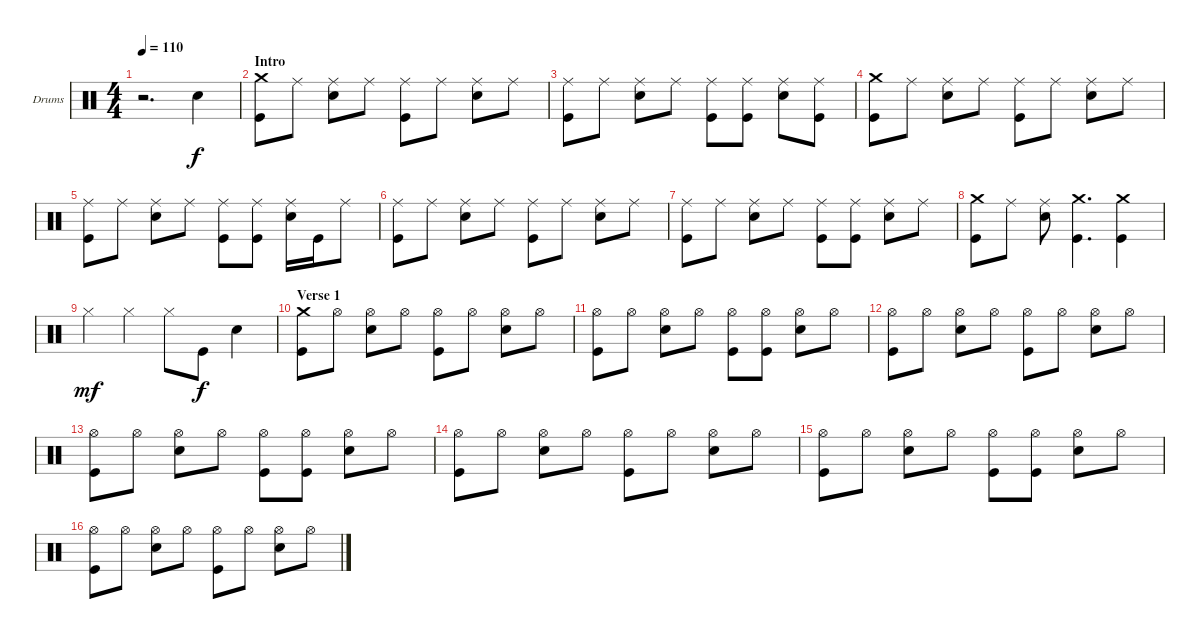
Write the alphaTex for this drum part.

\bracketExtendMode groupsimilarinstruments
\firstSystemTrackNameOrientation horizontal
\otherSystemsTrackNameOrientation horizontal
\track ("Drums" "Drums") {instrument percussion}
\staff {score}
\articulation defaults
\ts (4 4)
\tempo 110
\clef neutral
\ks c
r.2{d dy f} "Snare (hit) 2".4 |
\section ("" "Intro")
("Crash medium (hit)" "Kick (hit)").8 "Ride (middle)".8 ("Ride (middle)" "Snare (hit) 2").8 "Ride (middle)".8 ("Ride (middle)" "Kick (hit)").8 "Ride (middle)".8 ("Ride (middle)" "Snare (hit) 2").8 "Ride (middle)".8 |
("Ride (middle)" "Kick (hit)").8 "Ride (middle)".8 ("Ride (middle)" "Snare (hit) 2").8 "Ride (middle)".8 ("Ride (middle)" "Kick (hit)").8 ("Ride (middle)" "Kick (hit)").8 ("Ride (middle)" "Snare (hit) 2").8 ("Ride (middle)" "Kick (hit)").8 |
("Crash medium (hit)" "Kick (hit)").8 "Ride (middle)".8 ("Ride (middle)" "Snare (hit) 2").8 "Ride (middle)".8 ("Ride (middle)" "Kick (hit)").8 "Ride (middle)".8 ("Ride (middle)" "Snare (hit) 2").8 "Ride (middle)".8 |
("Ride (middle)" "Kick (hit)").8 "Ride (middle)".8 ("Ride (middle)" "Snare (hit) 2").8 "Ride (middle)".8 ("Ride (middle)" "Kick (hit)").8 ("Ride (middle)" "Kick (hit)").8 ("Ride (middle)" "Snare (hit) 2").16 "Kick (hit)".16 "Ride (middle)".8 |
("Ride (middle)" "Kick (hit)").8 "Ride (middle)".8 ("Ride (middle)" "Snare (hit) 2").8 "Ride (middle)".8 ("Ride (middle)" "Kick (hit)").8 "Ride (middle)".8 ("Ride (middle)" "Snare (hit) 2").8 "Ride (middle)".8 |
("Ride (middle)" "Kick (hit)").8 "Ride (middle)".8 ("Ride (middle)" "Snare (hit) 2").8 "Ride (middle)".8 ("Ride (middle)" "Kick (hit)").8 ("Ride (middle)" "Kick (hit)").8 ("Ride (middle)" "Snare (hit) 2").8 "Ride (middle)".8 |
("Crash medium (hit)" "Kick (hit)").8 "Ride (middle)".8 ("Ride (middle)" "Snare (hit) 2").8 ("Crash medium (hit)" "Kick (hit)").4{d} ("Crash medium (hit)" "Kick (hit)").4 |
"Hi-Hat (closed)".4{dy mf} "Hi-Hat (closed)".4 "Hi-Hat (closed)".8 "Kick (hit)".8{dy f} "Snare (hit) 2".4 |
\section ("" "Verse 1")
("Crash medium (hit)" "Kick (hit)").8 "Hi-Hat (open)".8 ("Hi-Hat (open)" "Snare (hit) 2").8 "Hi-Hat (open)".8 ("Hi-Hat (open)" "Kick (hit)").8 "Hi-Hat (open)".8 ("Hi-Hat (open)" "Snare (hit) 2").8 "Hi-Hat (open)".8 |
("Hi-Hat (open)" "Kick (hit)").8 "Hi-Hat (open)".8 ("Hi-Hat (open)" "Snare (hit) 2").8 "Hi-Hat (open)".8 ("Hi-Hat (open)" "Kick (hit)").8 ("Hi-Hat (open)" "Kick (hit)").8 ("Hi-Hat (open)" "Snare (hit) 2").8 "Hi-Hat (open)".8 |
("Hi-Hat (open)" "Kick (hit)").8 "Hi-Hat (open)".8 ("Hi-Hat (open)" "Snare (hit) 2").8 "Hi-Hat (open)".8 ("Hi-Hat (open)" "Kick (hit)").8 "Hi-Hat (open)".8 ("Hi-Hat (open)" "Snare (hit) 2").8 "Hi-Hat (open)".8 |
("Hi-Hat (open)" "Kick (hit)").8 "Hi-Hat (open)".8 ("Hi-Hat (open)" "Snare (hit) 2").8 "Hi-Hat (open)".8 ("Hi-Hat (open)" "Kick (hit)").8 ("Hi-Hat (open)" "Kick (hit)").8 ("Hi-Hat (open)" "Snare (hit) 2").8 "Hi-Hat (open)".8 |
("Hi-Hat (open)" "Kick (hit)").8 "Hi-Hat (open)".8 ("Hi-Hat (open)" "Snare (hit) 2").8 "Hi-Hat (open)".8 ("Hi-Hat (open)" "Kick (hit)").8 "Hi-Hat (open)".8 ("Hi-Hat (open)" "Snare (hit) 2").8 "Hi-Hat (open)".8 |
("Hi-Hat (open)" "Kick (hit)").8 "Hi-Hat (open)".8 ("Hi-Hat (open)" "Snare (hit) 2").8 "Hi-Hat (open)".8 ("Hi-Hat (open)" "Kick (hit)").8 ("Hi-Hat (open)" "Kick (hit)").8 ("Hi-Hat (open)" "Snare (hit) 2").8 "Hi-Hat (open)".8 |
("Hi-Hat (open)" "Kick (hit)").8 "Hi-Hat (open)".8 ("Hi-Hat (open)" "Snare (hit) 2").8 "Hi-Hat (open)".8 ("Hi-Hat (open)" "Kick (hit)").8 "Hi-Hat (open)".8 ("Hi-Hat (open)" "Snare (hit) 2").8 "Hi-Hat (open)".8
